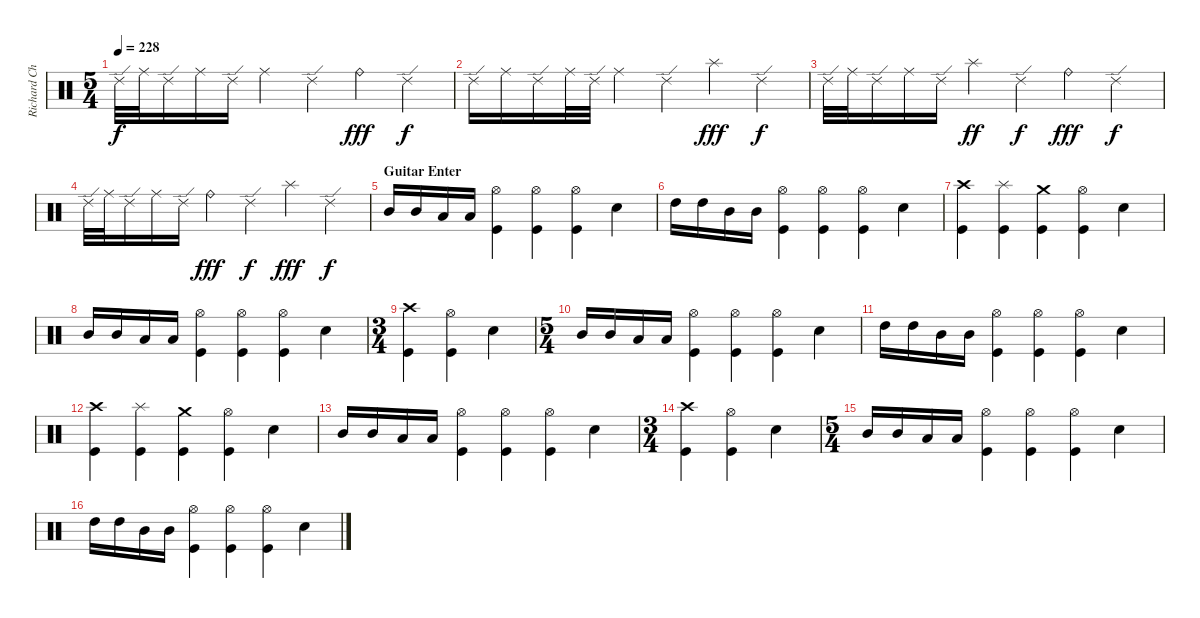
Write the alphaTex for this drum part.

\track ("Richard Christy " "Richard Ch") {instrument percussion}
\staff {score}
\articulation defaults
\ts (5 4)
\tempo 228
\clef neutral
\ks c "Ride (edge) 2".32{dy f} "Ride (middle)".32 "Ride (edge) 2".16 "Ride (middle)".16 "Ride (edge) 2".16 "Ride (middle)".4 "Ride (edge) 2".4 "Ride (bell)".4{dy fff} "Ride (edge) 2".4{dy f}
|
"Ride (edge) 2".16 "Ride (middle)".16 "Ride (edge) 2".16 "Ride (middle)".32 "Ride (edge) 2".32 "Ride (middle)".4 "Ride (edge) 2".4 "Splash (hit)".4{dy fff} "Ride (edge) 2".4{dy f} |
"Ride (edge) 2".32 "Ride (middle)".32 "Ride (edge) 2".16 "Ride (middle)".16 "Ride (edge) 2".16 "Splash (hit)".4{dy ff} "Ride (edge) 2".4{dy f} "Ride (bell)".4{dy fff} "Ride (edge) 2".4{dy f} |
"Ride (edge) 2".32 "Ride (middle)".32 "Ride (edge) 2".16 "Ride (middle)".16 "Ride (edge) 2".16 "Ride (bell)".4{dy fff} "Ride (edge) 2".4{dy f} "Splash (hit)".4{dy fff} "Ride (edge) 2".4{dy f} |
\section ("" "Guitar Enter")
"Mid Tom (hit)".16 "Mid Tom (hit)".16 "Low Tom (hit)".16 "Low Tom (hit)".16 ("Hi-Hat (open)" "Kick (hit)").4 ("Hi-Hat (open)" "Kick (hit)").4 ("Hi-Hat (open)" "Kick (hit)").4 "Electric Snare (hit)".4 |
"High Tom (hit)".16 "High Tom (hit)".16 "Mid Tom (hit)".16 "Mid Tom (hit)".16 ("Hi-Hat (open)" "Kick (hit)").4 ("Hi-Hat (open)" "Kick (hit)").4 ("Hi-Hat (open)" "Kick (hit)").4 "Electric Snare (hit)".4 |
("Crash high (hit)" "Kick (hit)").4 ("Splash (hit)" "Kick (hit)").4 ("Crash medium (hit)" "Kick (hit)").4 ("Hi-Hat (open)" "Kick (hit)").4 "Electric Snare (hit)".4 |
"Mid Tom (hit)".16 "Mid Tom (hit)".16 "Low Tom (hit)".16 "Low Tom (hit)".16 ("Hi-Hat (open)" "Kick (hit)").4 ("Hi-Hat (open)" "Kick (hit)").4 ("Hi-Hat (open)" "Kick (hit)").4 "Electric Snare (hit)".4 |
\ts (3 4)
("Crash high (hit)" "Kick (hit)").4 ("Hi-Hat (open)" "Kick (hit)").4 "Electric Snare (hit)".4 |
\ts (5 4)
"Mid Tom (hit)".16 "Mid Tom (hit)".16 "Low Tom (hit)".16 "Low Tom (hit)".16 ("Hi-Hat (open)" "Kick (hit)").4 ("Hi-Hat (open)" "Kick (hit)").4 ("Hi-Hat (open)" "Kick (hit)").4 "Electric Snare (hit)".4 |
"High Tom (hit)".16 "High Tom (hit)".16 "Mid Tom (hit)".16 "Mid Tom (hit)".16 ("Hi-Hat (open)" "Kick (hit)").4 ("Hi-Hat (open)" "Kick (hit)").4 ("Hi-Hat (open)" "Kick (hit)").4 "Electric Snare (hit)".4 |
("Crash high (hit)" "Kick (hit)").4 ("Splash (hit)" "Kick (hit)").4 ("Crash medium (hit)" "Kick (hit)").4 ("Hi-Hat (open)" "Kick (hit)").4 "Electric Snare (hit)".4 |
"Mid Tom (hit)".16 "Mid Tom (hit)".16 "Low Tom (hit)".16 "Low Tom (hit)".16 ("Hi-Hat (open)" "Kick (hit)").4 ("Hi-Hat (open)" "Kick (hit)").4 ("Hi-Hat (open)" "Kick (hit)").4 "Electric Snare (hit)".4 |
\ts (3 4)
("Crash high (hit)" "Kick (hit)").4 ("Hi-Hat (open)" "Kick (hit)").4 "Electric Snare (hit)".4 |
\ts (5 4)
"Mid Tom (hit)".16 "Mid Tom (hit)".16 "Low Tom (hit)".16 "Low Tom (hit)".16 ("Hi-Hat (open)" "Kick (hit)").4 ("Hi-Hat (open)" "Kick (hit)").4 ("Hi-Hat (open)" "Kick (hit)").4 "Electric Snare (hit)".4 |
"High Tom (hit)".16 "High Tom (hit)".16 "Mid Tom (hit)".16 "Mid Tom (hit)".16 ("Hi-Hat (open)" "Kick (hit)").4 ("Hi-Hat (open)" "Kick (hit)").4 ("Hi-Hat (open)" "Kick (hit)").4 "Electric Snare (hit)".4
